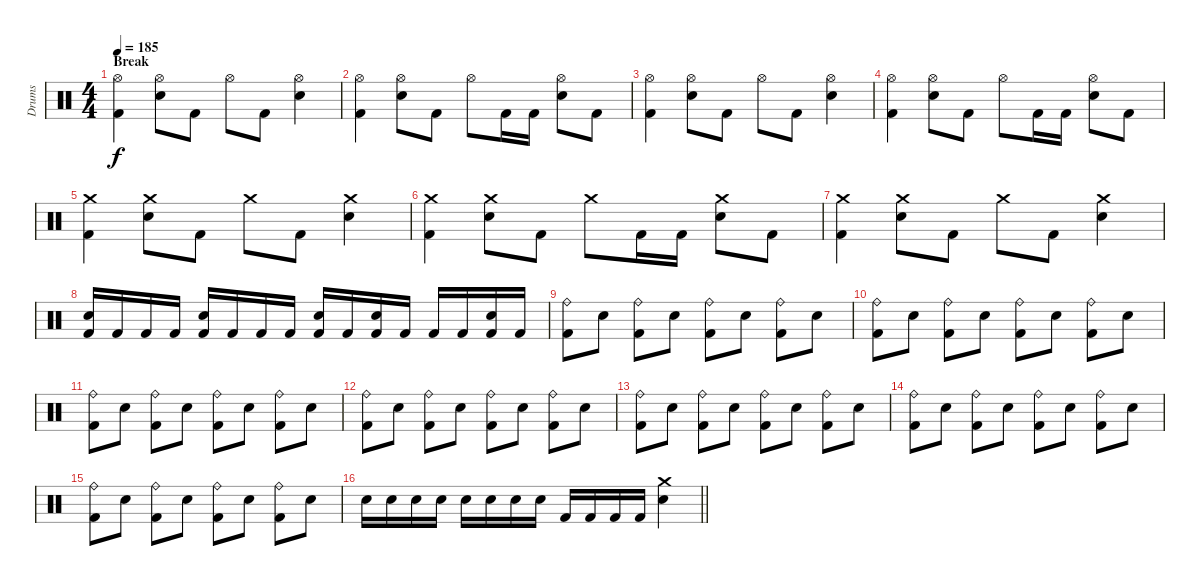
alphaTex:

\track ("Drums" "Drums") {instrument percussion}
\staff {score}
\articulation defaults
\ts (4 4)
\section ("" "Break")
\tempo 185
\clef neutral
\ks c
("Hi-Hat (open)" "Kick (hit) 2").4{dy f} ("Hi-Hat (open)" "Snare (hit) 2").8 "Kick (hit) 2".8 "Hi-Hat (open)".8 "Kick (hit) 2".8 ("Hi-Hat (open)" "Snare (hit) 2").4 |
("Hi-Hat (open)" "Kick (hit) 2").4 ("Hi-Hat (open)" "Snare (hit) 2").8 "Kick (hit) 2".8 "Hi-Hat (open)".8 "Kick (hit) 2".16 "Kick (hit) 2".16 ("Hi-Hat (open)" "Snare (hit) 2").8 "Kick (hit) 2".8 |
("Hi-Hat (open)" "Kick (hit) 2").4 ("Hi-Hat (open)" "Snare (hit) 2").8 "Kick (hit) 2".8 "Hi-Hat (open)".8 "Kick (hit) 2".8 ("Hi-Hat (open)" "Snare (hit) 2").4 |
("Hi-Hat (open)" "Kick (hit) 2").4 ("Hi-Hat (open)" "Snare (hit) 2").8 "Kick (hit) 2".8 "Hi-Hat (open)".8 "Kick (hit) 2".16 "Kick (hit) 2".16 ("Hi-Hat (open)" "Snare (hit) 2").8 "Kick (hit) 2".8 |
("Crash medium (hit)" "Kick (hit) 2").4 ("Crash medium (hit)" "Snare (hit) 2").8 "Kick (hit) 2".8 "Crash medium (hit)".8 "Kick (hit) 2".8 ("Crash medium (hit)" "Snare (hit) 2").4 |
("Crash medium (hit)" "Kick (hit) 2").4 ("Crash medium (hit)" "Snare (hit) 2").8 "Kick (hit) 2".8 "Crash medium (hit)".8 "Kick (hit) 2".16 "Kick (hit) 2".16 ("Crash medium (hit)" "Snare (hit) 2").8 "Kick (hit) 2".8 |
("Crash medium (hit)" "Kick (hit) 2").4 ("Crash medium (hit)" "Snare (hit) 2").8 "Kick (hit) 2".8 "Crash medium (hit)".8 "Kick (hit) 2".8 ("Crash medium (hit)" "Snare (hit) 2").4 |
("Snare (hit) 2" "Kick (hit) 2").16 "Kick (hit) 2".16 "Kick (hit) 2".16 "Kick (hit) 2".16 ("Snare (hit) 2" "Kick (hit) 2").16 "Kick (hit) 2".16 "Kick (hit) 2".16 "Kick (hit) 2".16 ("Snare (hit) 2" "Kick (hit) 2").16 "Kick (hit) 2".16 ("Snare (hit) 2" "Kick (hit) 2").16 "Kick (hit) 2".16 "Kick (hit) 2".16 "Kick (hit) 2".16 ("Snare (hit) 2" "Kick (hit) 2").16 "Kick (hit) 2".16 |
("Ride (bell)" "Kick (hit) 2").8 "Snare (hit) 2".8 ("Ride (bell)" "Kick (hit) 2").8 "Snare (hit) 2".8 ("Ride (bell)" "Kick (hit) 2").8 "Snare (hit) 2".8 ("Ride (bell)" "Kick (hit) 2").8 "Snare (hit) 2".8 |
("Ride (bell)" "Kick (hit) 2").8 "Snare (hit) 2".8 ("Ride (bell)" "Kick (hit) 2").8 "Snare (hit) 2".8 ("Ride (bell)" "Kick (hit) 2").8 "Snare (hit) 2".8 ("Ride (bell)" "Kick (hit) 2").8 "Snare (hit) 2".8 |
("Ride (bell)" "Kick (hit) 2").8 "Snare (hit) 2".8 ("Ride (bell)" "Kick (hit) 2").8 "Snare (hit) 2".8 ("Ride (bell)" "Kick (hit) 2").8 "Snare (hit) 2".8 ("Ride (bell)" "Kick (hit) 2").8 "Snare (hit) 2".8 |
("Ride (bell)" "Kick (hit) 2").8 "Snare (hit) 2".8 ("Ride (bell)" "Kick (hit) 2").8 "Snare (hit) 2".8 ("Ride (bell)" "Kick (hit) 2").8 "Snare (hit) 2".8 ("Ride (bell)" "Kick (hit) 2").8 "Snare (hit) 2".8 |
("Ride (bell)" "Kick (hit) 2").8 "Snare (hit) 2".8 ("Ride (bell)" "Kick (hit) 2").8 "Snare (hit) 2".8 ("Ride (bell)" "Kick (hit) 2").8 "Snare (hit) 2".8 ("Ride (bell)" "Kick (hit) 2").8 "Snare (hit) 2".8 |
("Ride (bell)" "Kick (hit) 2").8 "Snare (hit) 2".8 ("Ride (bell)" "Kick (hit) 2").8 "Snare (hit) 2".8 ("Ride (bell)" "Kick (hit) 2").8 "Snare (hit) 2".8 ("Ride (bell)" "Kick (hit) 2").8 "Snare (hit) 2".8 |
("Ride (bell)" "Kick (hit) 2").8 "Snare (hit) 2".8 ("Ride (bell)" "Kick (hit) 2").8 "Snare (hit) 2".8 ("Ride (bell)" "Kick (hit) 2").8 "Snare (hit) 2".8 ("Ride (bell)" "Kick (hit) 2").8 "Snare (hit) 2".8 |
\barLineRight lightlight "Snare (hit) 2".16 "Snare (hit) 2".16 "Snare (hit) 2".16 "Snare (hit) 2".16 "Snare (hit) 2".16 "Snare (hit) 2".16 "Snare (hit) 2".16 "Snare (hit) 2".16 "Kick (hit) 2".16 "Kick (hit) 2".16 "Kick (hit) 2".16 "Kick (hit) 2".16
("Crash medium (hit)" "Snare (hit) 2").4
